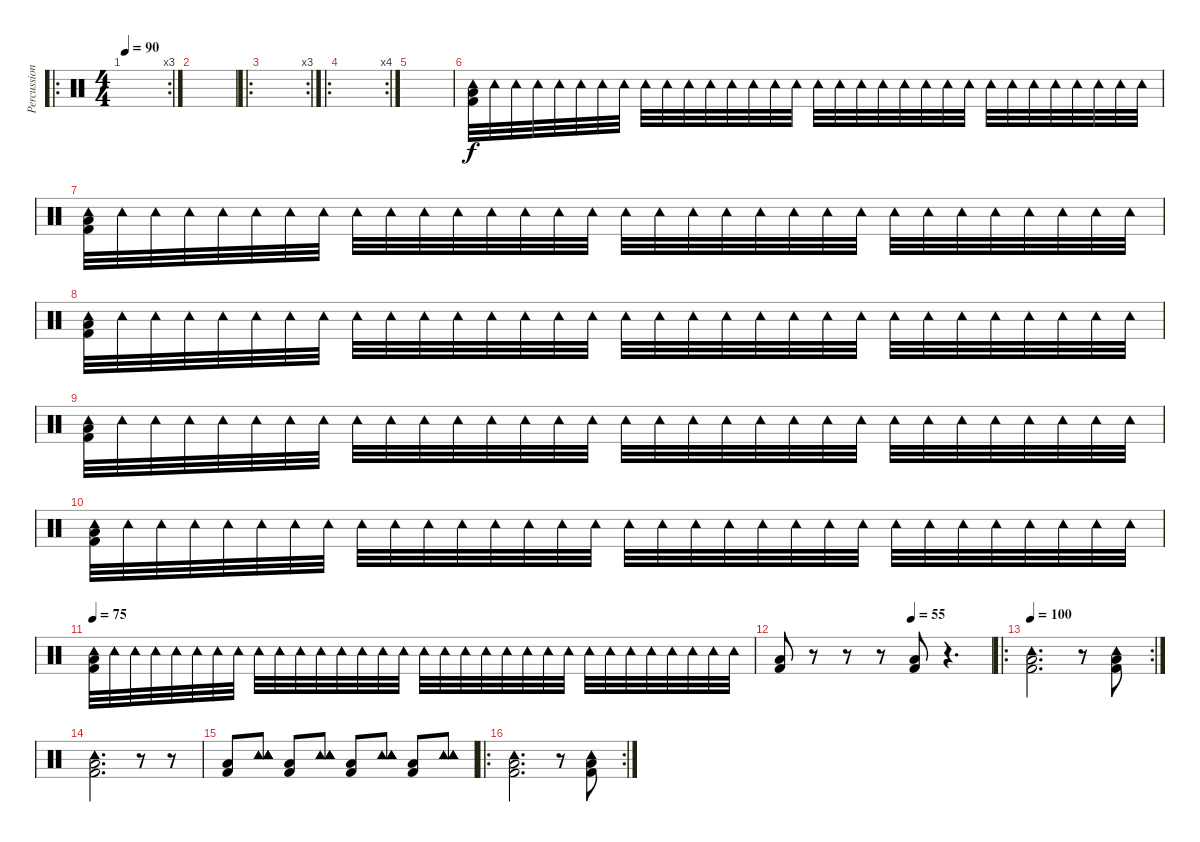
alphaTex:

\track ("Percussion" "Percussion") {instrument percussion}
\staff {score}
\articulation defaults
\ro
\rc 3
\ts (4 4)
\tempo 90
\clef neutral
\ks c
|
|
\ro
\rc 3
|
\ro
\rc 4
|
|
("Tambourine (hit)" "Kick (hit) 2" "Low Floor Tom (hit)").32{volume 6} "Tambourine (hit)".32 "Tambourine (hit)".32 "Tambourine (hit)".32 "Tambourine (hit)".32 "Tambourine (hit)".32 "Tambourine (hit)".32 "Tambourine (hit)".32 "Tambourine (hit)".32 "Tambourine (hit)".32 "Tambourine (hit)".32 "Tambourine (hit)".32 "Tambourine (hit)".32 "Tambourine (hit)".32 "Tambourine (hit)".32 "Tambourine (hit)".32 "Tambourine (hit)".32 "Tambourine (hit)".32 "Tambourine (hit)".32 "Tambourine (hit)".32 "Tambourine (hit)".32 "Tambourine (hit)".32 "Tambourine (hit)".32 "Tambourine (hit)".32 "Tambourine (hit)".32 "Tambourine (hit)".32 "Tambourine (hit)".32 "Tambourine (hit)".32 "Tambourine (hit)".32 "Tambourine (hit)".32 "Tambourine (hit)".32 "Tambourine (hit)".32 |
("Tambourine (hit)" "Kick (hit) 2" "Low Floor Tom (hit)").32{volume 6} "Tambourine (hit)".32 "Tambourine (hit)".32 "Tambourine (hit)".32 "Tambourine (hit)".32 "Tambourine (hit)".32 "Tambourine (hit)".32 "Tambourine (hit)".32 "Tambourine (hit)".32 "Tambourine (hit)".32 "Tambourine (hit)".32 "Tambourine (hit)".32 "Tambourine (hit)".32 "Tambourine (hit)".32 "Tambourine (hit)".32 "Tambourine (hit)".32 "Tambourine (hit)".32 "Tambourine (hit)".32 "Tambourine (hit)".32 "Tambourine (hit)".32 "Tambourine (hit)".32 "Tambourine (hit)".32 "Tambourine (hit)".32 "Tambourine (hit)".32 "Tambourine (hit)".32 "Tambourine (hit)".32 "Tambourine (hit)".32 "Tambourine (hit)".32 "Tambourine (hit)".32 "Tambourine (hit)".32 "Tambourine (hit)".32 "Tambourine (hit)".32 |
("Tambourine (hit)" "Kick (hit) 2" "Low Floor Tom (hit)").32{volume 6} "Tambourine (hit)".32 "Tambourine (hit)".32 "Tambourine (hit)".32 "Tambourine (hit)".32 "Tambourine (hit)".32 "Tambourine (hit)".32 "Tambourine (hit)".32 "Tambourine (hit)".32 "Tambourine (hit)".32 "Tambourine (hit)".32 "Tambourine (hit)".32 "Tambourine (hit)".32 "Tambourine (hit)".32 "Tambourine (hit)".32 "Tambourine (hit)".32 "Tambourine (hit)".32 "Tambourine (hit)".32 "Tambourine (hit)".32 "Tambourine (hit)".32 "Tambourine (hit)".32 "Tambourine (hit)".32 "Tambourine (hit)".32 "Tambourine (hit)".32 "Tambourine (hit)".32 "Tambourine (hit)".32 "Tambourine (hit)".32 "Tambourine (hit)".32 "Tambourine (hit)".32 "Tambourine (hit)".32 "Tambourine (hit)".32 "Tambourine (hit)".32 |
("Tambourine (hit)" "Kick (hit) 2" "Low Floor Tom (hit)").32{volume 6} "Tambourine (hit)".32 "Tambourine (hit)".32 "Tambourine (hit)".32 "Tambourine (hit)".32 "Tambourine (hit)".32 "Tambourine (hit)".32 "Tambourine (hit)".32 "Tambourine (hit)".32 "Tambourine (hit)".32 "Tambourine (hit)".32 "Tambourine (hit)".32 "Tambourine (hit)".32 "Tambourine (hit)".32 "Tambourine (hit)".32 "Tambourine (hit)".32 "Tambourine (hit)".32 "Tambourine (hit)".32 "Tambourine (hit)".32 "Tambourine (hit)".32 "Tambourine (hit)".32 "Tambourine (hit)".32 "Tambourine (hit)".32 "Tambourine (hit)".32 "Tambourine (hit)".32 "Tambourine (hit)".32 "Tambourine (hit)".32 "Tambourine (hit)".32 "Tambourine (hit)".32 "Tambourine (hit)".32 "Tambourine (hit)".32 "Tambourine (hit)".32 |
("Tambourine (hit)" "Kick (hit) 2" "Low Floor Tom (hit)").32{volume 6} "Tambourine (hit)".32 "Tambourine (hit)".32 "Tambourine (hit)".32 "Tambourine (hit)".32 "Tambourine (hit)".32 "Tambourine (hit)".32 "Tambourine (hit)".32 "Tambourine (hit)".32 "Tambourine (hit)".32 "Tambourine (hit)".32 "Tambourine (hit)".32 "Tambourine (hit)".32 "Tambourine (hit)".32 "Tambourine (hit)".32 "Tambourine (hit)".32 "Tambourine (hit)".32 "Tambourine (hit)".32 "Tambourine (hit)".32 "Tambourine (hit)".32 "Tambourine (hit)".32 "Tambourine (hit)".32 "Tambourine (hit)".32 "Tambourine (hit)".32 "Tambourine (hit)".32 "Tambourine (hit)".32 "Tambourine (hit)".32 "Tambourine (hit)".32 "Tambourine (hit)".32 "Tambourine (hit)".32 "Tambourine (hit)".32 "Tambourine (hit)".32 |
\tempo 75
("Tambourine (hit)" "Kick (hit) 2" "Low Floor Tom (hit)").32{volume 6} "Tambourine (hit)".32 "Tambourine (hit)".32 "Tambourine (hit)".32 "Tambourine (hit)".32 "Tambourine (hit)".32 "Tambourine (hit)".32 "Tambourine (hit)".32 "Tambourine (hit)".32 "Tambourine (hit)".32 "Tambourine (hit)".32 "Tambourine (hit)".32 "Tambourine (hit)".32 "Tambourine (hit)".32 "Tambourine (hit)".32 "Tambourine (hit)".32 "Tambourine (hit)".32 "Tambourine (hit)".32 "Tambourine (hit)".32 "Tambourine (hit)".32 "Tambourine (hit)".32 "Tambourine (hit)".32 "Tambourine (hit)".32 "Tambourine (hit)".32 "Tambourine (hit)".32 "Tambourine (hit)".32 "Tambourine (hit)".32 "Tambourine (hit)".32 "Tambourine (hit)".32 "Tambourine (hit)".32 "Tambourine (hit)".32 "Tambourine (hit)".32 |
\tempo (55 0.625)
("Kick (hit) 2" "Low Floor Tom (hit)").8 r.8 r.8 r.8 ("Kick (hit) 2" "Low Floor Tom (hit)").8 r.4{d} |
\ro
\rc 2
\tempo 100
("Tambourine (hit)" "Kick (hit) 2" "Low Floor Tom (hit)").2{d} r.8 ("Tambourine (hit)" "Kick (hit) 2" "Low Floor Tom (hit)").8 |
("Tambourine (hit)" "Kick (hit) 2" "Low Floor Tom (hit)").2{d} r.8 r.8 |
("Kick (hit) 2" "Low Floor Tom (hit)").8 ("Tambourine (hit)" "Tambourine (hit)" "Tambourine (hit)" "Tambourine (hit)").8 ("Kick (hit) 2" "Low Floor Tom (hit)").8 ("Tambourine (hit)" "Tambourine (hit)" "Tambourine (hit)" "Tambourine (hit)").8 ("Kick (hit) 2" "Low Floor Tom (hit)").8 ("Tambourine (hit)" "Tambourine (hit)" "Tambourine (hit)" "Tambourine (hit)").8 ("Kick (hit) 2" "Low Floor Tom (hit)").8 ("Tambourine (hit)" "Tambourine (hit)" "Tambourine (hit)" "Tambourine (hit)").8 |
\ro
\rc 2
("Tambourine (hit)" "Kick (hit) 2" "Low Floor Tom (hit)").2{d} r.8 ("Tambourine (hit)" "Kick (hit) 2" "Low Floor Tom (hit)").8
